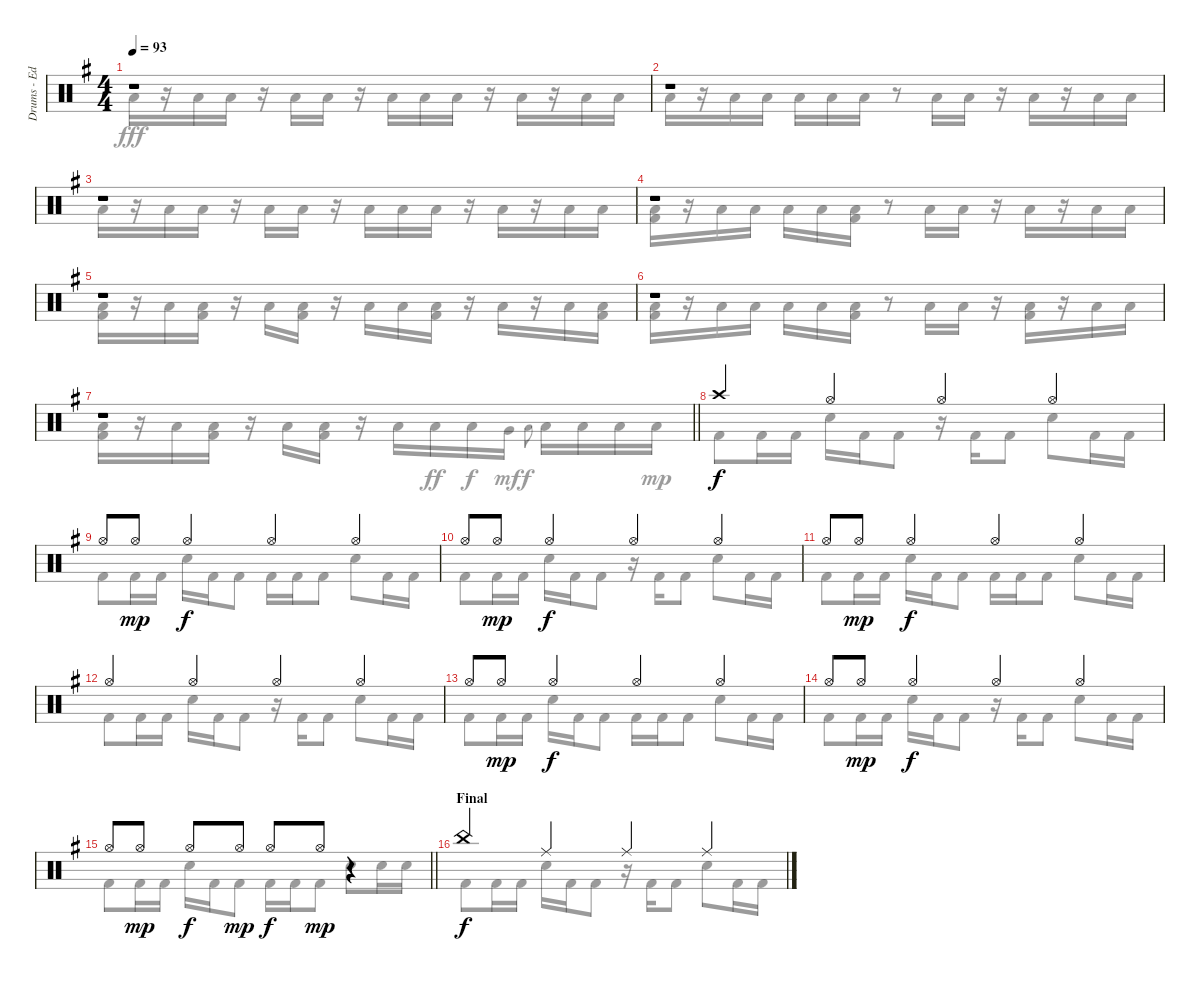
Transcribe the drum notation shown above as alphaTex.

\track ("Drums - Ed Warby" "Drums - Ed") {instrument percussion}
\staff {score}
\articulation defaults
\voice
\ts (4 4)
\tempo 93
\clef neutral
\ks eminor
r.1{dy f} |
r.1 |
r.1 |
r.1 |
r.1 |
r.1 |
\barLineRight lightlight
r.1 |
"Crash high (hit)".4 "Hi-Hat (open)".4 "Hi-Hat (open)".4 "Hi-Hat (open)".4 |
"Hi-Hat (open)".8 "Hi-Hat (open)".8{dy mp} "Hi-Hat (open)".4{dy f} "Hi-Hat (open)".4 "Hi-Hat (open)".4 |
"Hi-Hat (open)".8 "Hi-Hat (open)".8{dy mp} "Hi-Hat (open)".4{dy f} "Hi-Hat (open)".4 "Hi-Hat (open)".4 |
"Hi-Hat (open)".8 "Hi-Hat (open)".8{dy mp} "Hi-Hat (open)".4{dy f} "Hi-Hat (open)".4 "Hi-Hat (open)".4 |
"Hi-Hat (open)".4 "Hi-Hat (open)".4 "Hi-Hat (open)".4 "Hi-Hat (open)".4 |
"Hi-Hat (open)".8 "Hi-Hat (open)".8{dy mp} "Hi-Hat (open)".4{dy f} "Hi-Hat (open)".4 "Hi-Hat (open)".4 |
"Hi-Hat (open)".8 "Hi-Hat (open)".8{dy mp} "Hi-Hat (open)".4{dy f} "Hi-Hat (open)".4 "Hi-Hat (open)".4 |
\barLineRight lightlight "Hi-Hat (open)".8 "Hi-Hat (open)".8{dy mp} "Hi-Hat (open)".8{dy f} "Hi-Hat (open)".8{dy mp} "Hi-Hat (open)".8{dy f} "Hi-Hat (open)".8{dy mp}
r.4 |
\section ("" "Final")
"China (hit)".4{dy f} "Ride (middle)".4 "Ride (middle)".4 "Ride (middle)".4
\voice
\clef neutral
\ottava regular
\simile none
\ks eminor "Low Tom (hit)".16{dy fff}
r.16 "Low Tom (hit)".16 "Low Tom (hit)".16 r.16 "Low Tom (hit)".16 "Low Tom (hit)".16 r.16 "Low Tom (hit)".16 "Low Tom (hit)".16 "Low Tom (hit)".16 r.16 "Low Tom (hit)".16 r.16 "Low Tom (hit)".16 "Low Tom (hit)".16 |
"Low Tom (hit)".16 r.16 "Low Tom (hit)".16 "Low Tom (hit)".16 "Low Tom (hit)".16 "Low Tom (hit)".16 "Low Tom (hit)".16 r.8 "Low Tom (hit)".16 "Low Tom (hit)".16 r.16 "Low Tom (hit)".16 r.16 "Low Tom (hit)".16 "Low Tom (hit)".16 |
"Low Tom (hit)".16 r.16 "Low Tom (hit)".16 "Low Tom (hit)".16 r.16 "Low Tom (hit)".16 "Low Tom (hit)".16 r.16 "Low Tom (hit)".16 "Low Tom (hit)".16 "Low Tom (hit)".16 r.16 "Low Tom (hit)".16 r.16 "Low Tom (hit)".16 "Low Tom (hit)".16 |
("Low Tom (hit)" "Kick (hit) 2").16 r.16 "Low Tom (hit)".16 "Low Tom (hit)".16 "Low Tom (hit)".16 "Low Tom (hit)".16 ("Low Tom (hit)" "Kick (hit) 2").16 r.8 "Low Tom (hit)".16 "Low Tom (hit)".16 r.16 "Low Tom (hit)".16 r.16 "Low Tom (hit)".16 "Low Tom (hit)".16 |
("Low Tom (hit)" "Kick (hit) 2").16 r.16 "Low Tom (hit)".16 ("Low Tom (hit)" "Kick (hit) 2").16 r.16 "Low Tom (hit)".16 ("Low Tom (hit)" "Kick (hit) 2").16 r.16 "Low Tom (hit)".16 "Low Tom (hit)".16 ("Low Tom (hit)" "Kick (hit) 2").16 r.16 "Low Tom (hit)".16 r.16 "Low Tom (hit)".16 ("Low Tom (hit)" "Kick (hit) 2").16 |
("Low Tom (hit)" "Kick (hit) 2").16 r.16 "Low Tom (hit)".16 "Low Tom (hit)".16 "Low Tom (hit)".16 "Low Tom (hit)".16 ("Low Tom (hit)" "Kick (hit) 2").16 r.8 "Low Tom (hit)".16 "Low Tom (hit)".16 r.16 ("Low Tom (hit)" "Kick (hit) 2").16 r.16 "Low Tom (hit)".16 "Low Tom (hit)".16 |
\barLineRight lightlight
("Low Tom (hit)" "Kick (hit) 2").16 r.16 "Low Tom (hit)".16 ("Low Tom (hit)" "Kick (hit) 2").16 r.16 "Low Tom (hit)".16 ("Low Tom (hit)" "Kick (hit) 2").16 r.16 "Low Tom (hit)".16 "Low Tom (hit)".16{dy ff} "Low Tom (hit)".16{dy f} "Very Low Tom (hit)".16{dy mf} "Low Tom (hit)".8{gr onbeat dy f} "Low Tom (hit)".16 "Low Tom (hit)".16 "Low Tom (hit)".16 "Low Tom (hit)".16{dy mp} |
"Kick (hit) 2".8{dy f} "Kick (hit) 2".16 "Kick (hit) 2".16 "Snare (hit) 2".16 "Kick (hit) 2".16 "Kick (hit) 2".8 r.16 "Kick (hit) 2".16 "Kick (hit) 2".8 "Snare (hit) 2".8 "Kick (hit) 2".16 "Kick (hit) 2".16 |
"Kick (hit) 2".8 "Kick (hit) 2".16 "Kick (hit) 2".16 "Snare (hit) 2".16 "Kick (hit) 2".16 "Kick (hit) 2".8 "Kick (hit) 2".16 "Kick (hit) 2".16 "Kick (hit) 2".8 "Snare (hit) 2".8 "Kick (hit) 2".16 "Kick (hit) 2".16 |
"Kick (hit) 2".8 "Kick (hit) 2".16 "Kick (hit) 2".16 "Snare (hit) 2".16 "Kick (hit) 2".16 "Kick (hit) 2".8 r.16 "Kick (hit) 2".16 "Kick (hit) 2".8 "Snare (hit) 2".8 "Kick (hit) 2".16 "Kick (hit) 2".16 |
"Kick (hit) 2".8 "Kick (hit) 2".16 "Kick (hit) 2".16 "Snare (hit) 2".16 "Kick (hit) 2".16 "Kick (hit) 2".8 "Kick (hit) 2".16 "Kick (hit) 2".16 "Kick (hit) 2".8 "Snare (hit) 2".8 "Kick (hit) 2".16 "Kick (hit) 2".16 |
"Kick (hit) 2".8 "Kick (hit) 2".16 "Kick (hit) 2".16 "Snare (hit) 2".16 "Kick (hit) 2".16 "Kick (hit) 2".8 r.16 "Kick (hit) 2".16 "Kick (hit) 2".8 "Snare (hit) 2".8 "Kick (hit) 2".16 "Kick (hit) 2".16 |
"Kick (hit) 2".8 "Kick (hit) 2".16 "Kick (hit) 2".16 "Snare (hit) 2".16 "Kick (hit) 2".16 "Kick (hit) 2".8 "Kick (hit) 2".16 "Kick (hit) 2".16 "Kick (hit) 2".8 "Snare (hit) 2".8 "Kick (hit) 2".16 "Kick (hit) 2".16 |
"Kick (hit) 2".8 "Kick (hit) 2".16 "Kick (hit) 2".16 "Snare (hit) 2".16 "Kick (hit) 2".16 "Kick (hit) 2".8 r.16 "Kick (hit) 2".16 "Kick (hit) 2".8 "Snare (hit) 2".8 "Kick (hit) 2".16 "Kick (hit) 2".16 |
\barLineRight lightlight "Kick (hit) 2".8 "Kick (hit) 2".16 "Kick (hit) 2".16 "Snare (hit) 2".16 "Kick (hit) 2".16 "Kick (hit) 2".8 "Kick (hit) 2".16 "Kick (hit) 2".16 "Kick (hit) 2".8 "Snare (hit) 2".8 "Snare (hit) 2".16 "Snare (hit) 2".16
|
"Kick (hit) 2".8 "Kick (hit) 2".16 "Kick (hit) 2".16 "Snare (hit) 2".16 "Kick (hit) 2".16 "Kick (hit) 2".8 r.16 "Kick (hit) 2".16 "Kick (hit) 2".8 "Snare (hit) 2".8 "Kick (hit) 2".16 "Kick (hit) 2".16
